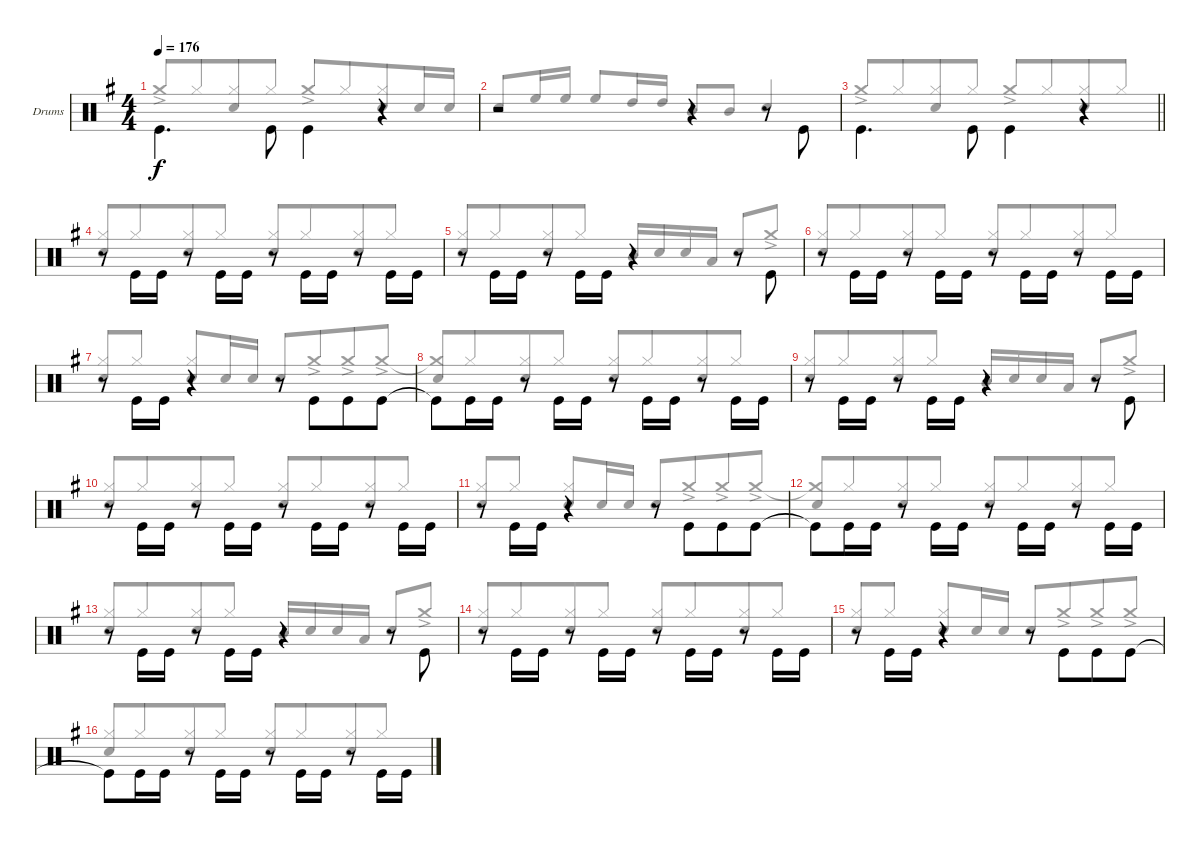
\bracketExtendMode groupsimilarinstruments
\firstSystemTrackNameOrientation horizontal
\otherSystemsTrackNameOrientation horizontal
\track ("Drums" "Drums") {instrument percussion}
\staff {score}
\articulation defaults
\voice
\ts (4 4)
\tempo 176
\clef neutral
\scale
1.04288
\ks g "Kick (hit)".4{d dy f beam invert} "Kick (hit)".8{beam invert} "Kick (hit)".4{beam invert}
r.4 |
\scale
0.957125 r.2 r.4 r.8 "Kick (hit)".8{beam invert} |
\scale
1.04288
\barLineRight lightlight "Kick (hit)".4{d beam invert} "Kick (hit)".8{beam invert} "Kick (hit)".4{beam invert}
r.4 |
\scale
0.957125 r.8 "Kick (hit)".16{beam invert} "Kick (hit)".16 r.8 "Kick (hit)".16{beam invert} "Kick (hit)".16 r.8 "Kick (hit)".16{beam invert} "Kick (hit)".16 r.8 "Kick (hit)".16{beam invert} "Kick (hit)".16 |
\scale
1.04288 r.8 "Kick (hit)".16{beam invert} "Kick (hit)".16 r.8 "Kick (hit)".16{beam invert} "Kick (hit)".16 r.4 r.8 "Kick (hit)".8{beam invert} |
\scale
0.957125 r.8 "Kick (hit)".16{beam invert} "Kick (hit)".16 r.8 "Kick (hit)".16{beam invert} "Kick (hit)".16 r.8 "Kick (hit)".16{beam invert} "Kick (hit)".16 r.8 "Kick (hit)".16{beam invert} "Kick (hit)".16 |
\scale
1.04288 r.8 "Kick (hit)".16{beam invert} "Kick (hit)".16 r.4 r.8 "Kick (hit)".8{beam invert beam merge} "Kick (hit)".8{beam merge} "Kick (hit)".8 |
\scale
0.957125 "Kick (hit)"{t}.8{beam invert} "Kick (hit)".16 "Kick (hit)".16 r.8 "Kick (hit)".16{beam invert} "Kick (hit)".16 r.8 "Kick (hit)".16{beam invert} "Kick (hit)".16 r.8 "Kick (hit)".16{beam invert} "Kick (hit)".16 |
\scale
1.04288 r.8 "Kick (hit)".16{beam invert} "Kick (hit)".16 r.8 "Kick (hit)".16{beam invert} "Kick (hit)".16 r.4 r.8 "Kick (hit)".8{beam invert} |
\scale
0.957125 r.8 "Kick (hit)".16{beam invert} "Kick (hit)".16 r.8 "Kick (hit)".16{beam invert} "Kick (hit)".16 r.8 "Kick (hit)".16{beam invert} "Kick (hit)".16 r.8 "Kick (hit)".16{beam invert} "Kick (hit)".16 |
\scale
1.04288 r.8 "Kick (hit)".16{beam invert} "Kick (hit)".16 r.4 r.8 "Kick (hit)".8{beam invert beam merge} "Kick (hit)".8{beam merge} "Kick (hit)".8 |
\scale
0.957125 "Kick (hit)"{t}.8{beam invert} "Kick (hit)".16 "Kick (hit)".16 r.8 "Kick (hit)".16{beam invert} "Kick (hit)".16 r.8 "Kick (hit)".16{beam invert} "Kick (hit)".16 r.8 "Kick (hit)".16{beam invert} "Kick (hit)".16 |
\scale
1.04288 r.8 "Kick (hit)".16{beam invert} "Kick (hit)".16 r.8 "Kick (hit)".16{beam invert} "Kick (hit)".16 r.4 r.8 "Kick (hit)".8{beam invert} |
\scale
0.957125 r.8 "Kick (hit)".16{beam invert} "Kick (hit)".16 r.8 "Kick (hit)".16{beam invert} "Kick (hit)".16 r.8 "Kick (hit)".16{beam invert} "Kick (hit)".16 r.8 "Kick (hit)".16{beam invert} "Kick (hit)".16 |
\scale
1.04288 r.8 "Kick (hit)".16{beam invert} "Kick (hit)".16 r.4 r.8 "Kick (hit)".8{beam invert beam merge} "Kick (hit)".8{beam merge} "Kick (hit)".8 |
\scale
0.957125 "Kick (hit)"{t}.8{beam invert} "Kick (hit)".16 "Kick (hit)".16 r.8 "Kick (hit)".16{beam invert} "Kick (hit)".16 r.8 "Kick (hit)".16{beam invert} "Kick (hit)".16 r.8 "Kick (hit)".16{beam invert} "Kick (hit)".16
\voice
\clef neutral
\ottava regular
\simile none
\scale
1.04288
\ks g "Crash medium (hit)"{ac}.8{dy f beam invert} "Hi-Hat (closed)".8{beam merge}
("Hi-Hat (closed)" "Snare (hit) 2").8{beam merge} "Hi-Hat (closed)".8{beam split} "Crash medium (hit)"{ac}.8{beam invert} "Hi-Hat (closed)".8{beam merge} ("Hi-Hat (closed)" "Snare (hit) 2").8{beam merge} "Snare (hit) 2".16 "Snare (hit) 2".16 |
\scale
0.957125 "Snare (hit) 2".8{beam invert} "High Floor Tom (hit)".16 "High Floor Tom (hit)".16 "High Floor Tom (hit)".8{beam invert} "High Tom (hit)".16 "High Tom (hit)".16 "Mid Tom (hit)".8{beam invert} "Mid Tom (hit)".8 "Snare (hit) 2".4{beam invert} |
\scale
1.04288
\barLineRight lightlight "Crash medium (hit)"{ac}.8{beam invert} "Hi-Hat (closed)".8{beam merge}
("Hi-Hat (closed)" "Snare (hit) 2").8{beam merge} "Hi-Hat (closed)".8{beam split} "Crash medium (hit)"{ac}.8{beam invert} "Hi-Hat (closed)".8{beam merge} ("Hi-Hat (closed)" "Snare (hit) 2").8{beam merge} "Hi-Hat (closed)".8{beam split} |
\scale
0.957125 ("Hi-Hat (closed)" "Snare (hit) 2").8{beam invert} "Hi-Hat (closed)".8{beam merge} ("Hi-Hat (closed)" "Snare (hit) 2").8{beam merge} "Hi-Hat (closed)".8{beam split} ("Hi-Hat (closed)" "Snare (hit) 2").8{beam invert} "Hi-Hat (closed)".8{beam merge} ("Hi-Hat (closed)" "Snare (hit) 2").8{beam merge} "Hi-Hat (closed)".8{beam split} |
\scale
1.04288 ("Hi-Hat (closed)" "Snare (hit) 2").8{beam invert} "Hi-Hat (closed)".8{beam merge} ("Hi-Hat (closed)" "Snare (hit) 2").8{beam merge} "Hi-Hat (closed)".8{beam split} "Mid Tom (hit)".16{beam invert} "Snare (hit) 2".16 "Snare (hit) 2".16 "Low Tom (hit)".16 "Snare (hit) 2".8{beam invert} "Crash medium (hit)"{ac}.8 |
\scale
0.957125 ("Hi-Hat (closed)" "Snare (hit) 2").8{beam invert} "Hi-Hat (closed)".8{beam merge} ("Hi-Hat (closed)" "Snare (hit) 2").8{beam merge} "Hi-Hat (closed)".8{beam split} ("Hi-Hat (closed)" "Snare (hit) 2").8{beam invert} "Hi-Hat (closed)".8{beam merge} ("Hi-Hat (closed)" "Snare (hit) 2").8{beam merge} "Hi-Hat (closed)".8{beam split} |
\scale
1.04288 ("Hi-Hat (closed)" "Snare (hit) 2").8{beam invert} "Hi-Hat (closed)".8{beam split} ("Hi-Hat (closed)" "Snare (hit) 2").8{beam invert beam merge} "Snare (hit) 2".16{beam invert beam merge} "Snare (hit) 2".16{beam invert beam split} "Snare (hit) 2".8{beam invert beam merge} "Crash medium (hit)"{ac}.8{beam merge} "Crash medium (hit)"{ac}.8{beam merge} "Crash medium (hit)"{ac}.8{beam merge} |
\scale
0.957125 ("Crash medium (hit)"{t} "Snare (hit) 2").8{beam invert} "Hi-Hat (closed)".8{beam merge} ("Hi-Hat (closed)" "Snare (hit) 2").8{beam merge} "Hi-Hat (closed)".8{beam split} ("Hi-Hat (closed)" "Snare (hit) 2").8{beam invert} "Hi-Hat (closed)".8{beam merge} ("Hi-Hat (closed)" "Snare (hit) 2").8{beam merge} "Hi-Hat (closed)".8{beam split} |
\scale
1.04288 ("Hi-Hat (closed)" "Snare (hit) 2").8{beam invert} "Hi-Hat (closed)".8{beam merge} ("Hi-Hat (closed)" "Snare (hit) 2").8{beam merge} "Hi-Hat (closed)".8{beam split} "Mid Tom (hit)".16{beam invert} "Snare (hit) 2".16 "Snare (hit) 2".16 "Low Tom (hit)".16 "Snare (hit) 2".8{beam invert} "Crash medium (hit)"{ac}.8 |
\scale
0.957125 ("Hi-Hat (closed)" "Snare (hit) 2").8{beam invert} "Hi-Hat (closed)".8{beam merge} ("Hi-Hat (closed)" "Snare (hit) 2").8{beam merge} "Hi-Hat (closed)".8{beam split} ("Hi-Hat (closed)" "Snare (hit) 2").8{beam invert} "Hi-Hat (closed)".8{beam merge} ("Hi-Hat (closed)" "Snare (hit) 2").8{beam merge} "Hi-Hat (closed)".8{beam split} |
\scale
1.04288 ("Hi-Hat (closed)" "Snare (hit) 2").8{beam invert} "Hi-Hat (closed)".8{beam split} ("Hi-Hat (closed)" "Snare (hit) 2").8{beam invert beam merge} "Snare (hit) 2".16{beam invert beam merge} "Snare (hit) 2".16{beam invert beam split} "Snare (hit) 2".8{beam invert beam merge} "Crash medium (hit)"{ac}.8{beam merge} "Crash medium (hit)"{ac}.8{beam merge} "Crash medium (hit)"{ac}.8{beam merge} |
\scale
0.957125 ("Crash medium (hit)"{t} "Snare (hit) 2").8{beam invert} "Hi-Hat (closed)".8{beam merge} ("Hi-Hat (closed)" "Snare (hit) 2").8{beam merge} "Hi-Hat (closed)".8{beam split} ("Hi-Hat (closed)" "Snare (hit) 2").8{beam invert} "Hi-Hat (closed)".8{beam merge} ("Hi-Hat (closed)" "Snare (hit) 2").8{beam merge} "Hi-Hat (closed)".8{beam split} |
\scale
1.04288 ("Hi-Hat (closed)" "Snare (hit) 2").8{beam invert} "Hi-Hat (closed)".8{beam merge} ("Hi-Hat (closed)" "Snare (hit) 2").8{beam merge} "Hi-Hat (closed)".8{beam split} "Mid Tom (hit)".16{beam invert} "Snare (hit) 2".16 "Snare (hit) 2".16 "Low Tom (hit)".16 "Snare (hit) 2".8{beam invert} "Crash medium (hit)"{ac}.8 |
\scale
0.957125 ("Hi-Hat (closed)" "Snare (hit) 2").8{beam invert} "Hi-Hat (closed)".8{beam merge} ("Hi-Hat (closed)" "Snare (hit) 2").8{beam merge} "Hi-Hat (closed)".8{beam split} ("Hi-Hat (closed)" "Snare (hit) 2").8{beam invert} "Hi-Hat (closed)".8{beam merge} ("Hi-Hat (closed)" "Snare (hit) 2").8{beam merge} "Hi-Hat (closed)".8{beam split} |
\scale
1.04288 ("Hi-Hat (closed)" "Snare (hit) 2").8{beam invert} "Hi-Hat (closed)".8{beam split} ("Hi-Hat (closed)" "Snare (hit) 2").8{beam invert beam merge} "Snare (hit) 2".16{beam invert beam merge} "Snare (hit) 2".16{beam invert beam split} "Snare (hit) 2".8{beam invert beam merge} "Crash medium (hit)"{ac}.8{beam merge} "Crash medium (hit)"{ac}.8{beam merge} "Crash medium (hit)"{ac}.8{beam merge} |
\scale
0.957125 ("Snare (hit) 2" "Hi-Hat (closed)").8{beam invert} "Hi-Hat (closed)".8{beam merge} ("Hi-Hat (closed)" "Snare (hit) 2").8{beam merge} "Hi-Hat (closed)".8{beam split} ("Hi-Hat (closed)" "Snare (hit) 2").8{beam invert} "Hi-Hat (closed)".8{beam merge} ("Hi-Hat (closed)" "Snare (hit) 2").8{beam merge} "Hi-Hat (closed)".8{beam split}
